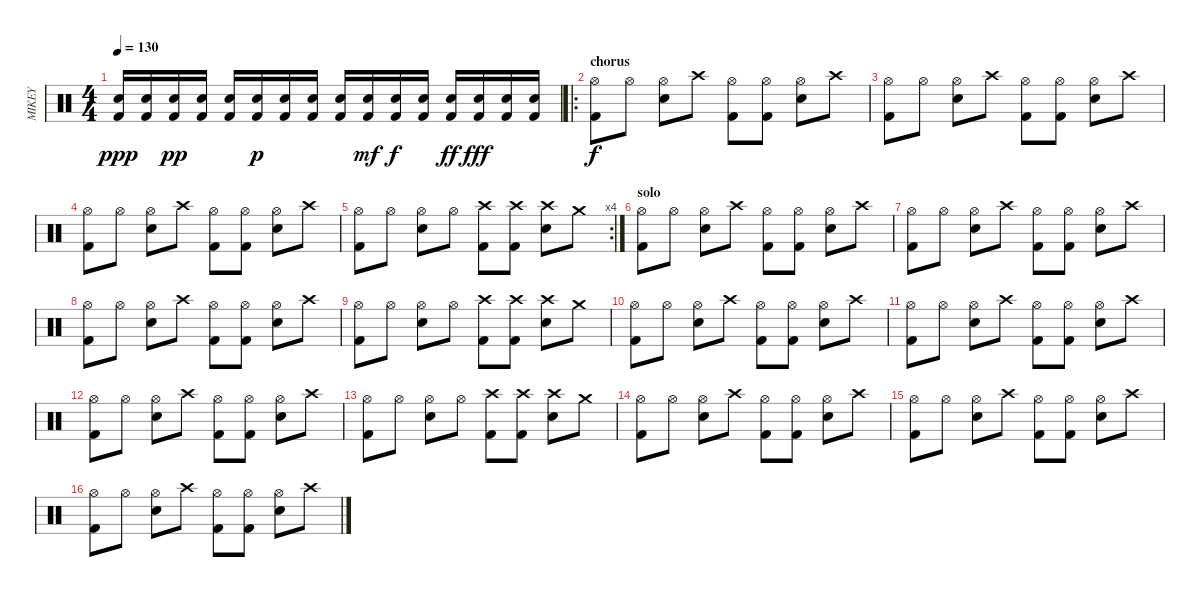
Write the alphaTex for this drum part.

\track ("MIKEY" "MIKEY") {instrument percussion}
\staff {score}
\articulation defaults
\ts (4 4)
\tempo 130
\clef neutral
\ks c
("Kick (hit) 2" "Electric Snare (hit)").16{dy ppp} ("Kick (hit) 2" "Electric Snare (hit)").16 ("Kick (hit) 2" "Electric Snare (hit)").16{dy pp} ("Kick (hit) 2" "Electric Snare (hit)").16 ("Kick (hit) 2" "Electric Snare (hit)").16 ("Kick (hit) 2" "Electric Snare (hit)").16{dy p} ("Kick (hit) 2" "Electric Snare (hit)").16 ("Kick (hit) 2" "Electric Snare (hit)").16 ("Kick (hit) 2" "Electric Snare (hit)").16 ("Kick (hit) 2" "Electric Snare (hit)").16{dy mf} ("Kick (hit) 2" "Electric Snare (hit)").16{dy f} ("Kick (hit) 2" "Electric Snare (hit)").16 ("Kick (hit) 2" "Electric Snare (hit)").16{dy ff} ("Kick (hit) 2" "Electric Snare (hit)").16{dy fff} ("Kick (hit) 2" "Electric Snare (hit)").16 ("Kick (hit) 2" "Electric Snare (hit)").16 |
\ro
\section ("" "chorus")
("Kick (hit) 2" "Hi-Hat (open)").8{dy f} "Hi-Hat (open)".8 ("Electric Snare (hit)" "Hi-Hat (open)").8 "Crash high (hit)".8 ("Kick (hit) 2" "Hi-Hat (open)").8 ("Kick (hit) 2" "Hi-Hat (open)").8 ("Electric Snare (hit)" "Hi-Hat (open)").8 "Crash high (hit)".8 |
("Kick (hit) 2" "Hi-Hat (open)").8 "Hi-Hat (open)".8 ("Electric Snare (hit)" "Hi-Hat (open)").8 "Crash high (hit)".8 ("Kick (hit) 2" "Hi-Hat (open)").8 ("Kick (hit) 2" "Hi-Hat (open)").8 ("Electric Snare (hit)" "Hi-Hat (open)").8 "Crash high (hit)".8 |
("Kick (hit) 2" "Hi-Hat (open)").8 "Hi-Hat (open)".8 ("Electric Snare (hit)" "Hi-Hat (open)").8 "Crash high (hit)".8 ("Kick (hit) 2" "Hi-Hat (open)").8 ("Kick (hit) 2" "Hi-Hat (open)").8 ("Electric Snare (hit)" "Hi-Hat (open)").8 "Crash high (hit)".8 |
\rc 4
("Kick (hit) 2" "Hi-Hat (open)").8 "Hi-Hat (open)".8 ("Electric Snare (hit)" "Hi-Hat (open)").8 "Hi-Hat (open)".8 ("Kick (hit) 2" "Crash high (hit)").8 ("Kick (hit) 2" "Crash high (hit)").8 ("Electric Snare (hit)" "Crash high (hit)").8 "Crash medium (hit)".8 |
\section ("" "solo")
("Kick (hit) 2" "Hi-Hat (open)").8 "Hi-Hat (open)".8 ("Electric Snare (hit)" "Hi-Hat (open)").8 "Crash high (hit)".8 ("Kick (hit) 2" "Hi-Hat (open)").8 ("Kick (hit) 2" "Hi-Hat (open)").8 ("Electric Snare (hit)" "Hi-Hat (open)").8 "Crash high (hit)".8 |
("Kick (hit) 2" "Hi-Hat (open)").8 "Hi-Hat (open)".8 ("Electric Snare (hit)" "Hi-Hat (open)").8 "Crash high (hit)".8 ("Kick (hit) 2" "Hi-Hat (open)").8 ("Kick (hit) 2" "Hi-Hat (open)").8 ("Electric Snare (hit)" "Hi-Hat (open)").8 "Crash high (hit)".8 |
("Kick (hit) 2" "Hi-Hat (open)").8 "Hi-Hat (open)".8 ("Electric Snare (hit)" "Hi-Hat (open)").8 "Crash high (hit)".8 ("Kick (hit) 2" "Hi-Hat (open)").8 ("Kick (hit) 2" "Hi-Hat (open)").8 ("Electric Snare (hit)" "Hi-Hat (open)").8 "Crash high (hit)".8 |
("Kick (hit) 2" "Hi-Hat (open)").8 "Hi-Hat (open)".8 ("Electric Snare (hit)" "Hi-Hat (open)").8 "Hi-Hat (open)".8 ("Kick (hit) 2" "Crash high (hit)").8 ("Kick (hit) 2" "Crash high (hit)").8 ("Electric Snare (hit)" "Crash high (hit)").8 "Crash medium (hit)".8 |
("Kick (hit) 2" "Hi-Hat (open)").8 "Hi-Hat (open)".8 ("Electric Snare (hit)" "Hi-Hat (open)").8 "Crash high (hit)".8 ("Kick (hit) 2" "Hi-Hat (open)").8 ("Kick (hit) 2" "Hi-Hat (open)").8 ("Electric Snare (hit)" "Hi-Hat (open)").8 "Crash high (hit)".8 |
("Kick (hit) 2" "Hi-Hat (open)").8 "Hi-Hat (open)".8 ("Electric Snare (hit)" "Hi-Hat (open)").8 "Crash high (hit)".8 ("Kick (hit) 2" "Hi-Hat (open)").8 ("Kick (hit) 2" "Hi-Hat (open)").8 ("Electric Snare (hit)" "Hi-Hat (open)").8 "Crash high (hit)".8 |
("Kick (hit) 2" "Hi-Hat (open)").8 "Hi-Hat (open)".8 ("Electric Snare (hit)" "Hi-Hat (open)").8 "Crash high (hit)".8 ("Kick (hit) 2" "Hi-Hat (open)").8 ("Kick (hit) 2" "Hi-Hat (open)").8 ("Electric Snare (hit)" "Hi-Hat (open)").8 "Crash high (hit)".8 |
("Kick (hit) 2" "Hi-Hat (open)").8 "Hi-Hat (open)".8 ("Electric Snare (hit)" "Hi-Hat (open)").8 "Hi-Hat (open)".8 ("Kick (hit) 2" "Crash high (hit)").8 ("Kick (hit) 2" "Crash high (hit)").8 ("Electric Snare (hit)" "Crash high (hit)").8 "Crash medium (hit)".8 |
("Kick (hit) 2" "Hi-Hat (open)").8 "Hi-Hat (open)".8 ("Electric Snare (hit)" "Hi-Hat (open)").8 "Crash high (hit)".8 ("Kick (hit) 2" "Hi-Hat (open)").8 ("Kick (hit) 2" "Hi-Hat (open)").8 ("Electric Snare (hit)" "Hi-Hat (open)").8 "Crash high (hit)".8 |
("Kick (hit) 2" "Hi-Hat (open)").8 "Hi-Hat (open)".8 ("Electric Snare (hit)" "Hi-Hat (open)").8 "Crash high (hit)".8 ("Kick (hit) 2" "Hi-Hat (open)").8 ("Kick (hit) 2" "Hi-Hat (open)").8 ("Electric Snare (hit)" "Hi-Hat (open)").8 "Crash high (hit)".8 |
("Kick (hit) 2" "Hi-Hat (open)").8 "Hi-Hat (open)".8 ("Electric Snare (hit)" "Hi-Hat (open)").8 "Crash high (hit)".8 ("Kick (hit) 2" "Hi-Hat (open)").8 ("Kick (hit) 2" "Hi-Hat (open)").8 ("Electric Snare (hit)" "Hi-Hat (open)").8 "Crash high (hit)".8
